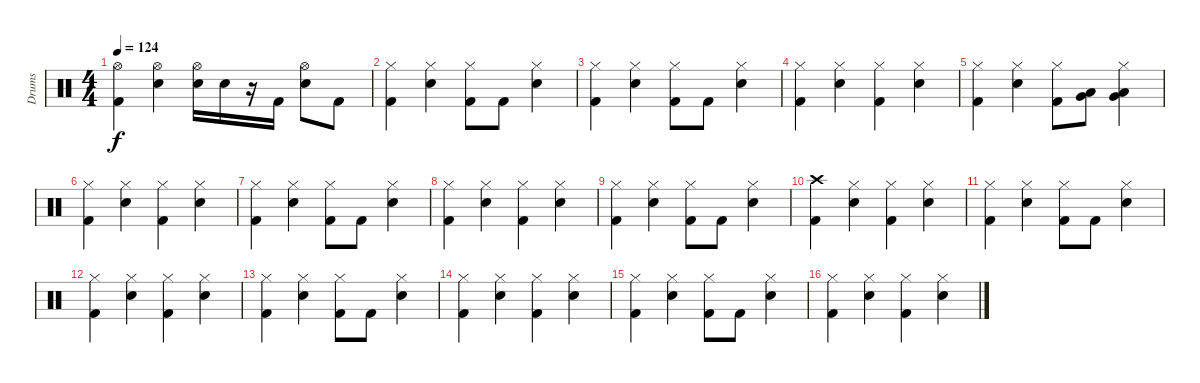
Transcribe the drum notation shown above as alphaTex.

\track ("Drums" "Drums") {instrument percussion}
\staff {score}
\articulation defaults
\ts (4 4)
\tempo 124
\clef neutral
\ks c
("Hi-Hat (open)" "Kick (hit) 2").4{dy f} ("Hi-Hat (open)" "Snare (hit) 2").4 ("Hi-Hat (open)" "Snare (hit) 2").16 "Snare (hit) 2".16 r.16 "Kick (hit) 2".16 ("Hi-Hat (open)" "Snare (hit) 2").8 "Kick (hit) 2".8 |
("Hi-Hat (closed)" "Kick (hit) 2").4 ("Hi-Hat (closed)" "Snare (hit) 2").4 ("Hi-Hat (closed)" "Kick (hit) 2").8 "Kick (hit) 2".8 ("Hi-Hat (closed)" "Snare (hit) 2").4 |
("Hi-Hat (closed)" "Kick (hit) 2").4 ("Hi-Hat (closed)" "Snare (hit) 2").4 ("Hi-Hat (closed)" "Kick (hit) 2").8 "Kick (hit) 2".8 ("Hi-Hat (closed)" "Snare (hit) 2").4 |
("Hi-Hat (closed)" "Kick (hit) 2").4 ("Hi-Hat (closed)" "Snare (hit) 2").4 ("Hi-Hat (closed)" "Kick (hit) 2").4 ("Hi-Hat (closed)" "Snare (hit) 2").4 |
("Hi-Hat (closed)" "Kick (hit) 2").4 ("Hi-Hat (closed)" "Snare (hit) 2").4 ("Hi-Hat (closed)" "Kick (hit) 2").8 ("Very Low Tom (hit)" "Low Tom (hit)").8 ("Hi-Hat (closed)" "Very Low Tom (hit)" "Low Tom (hit)").4 |
("Hi-Hat (closed)" "Kick (hit) 2").4 ("Hi-Hat (closed)" "Snare (hit) 2").4 ("Hi-Hat (closed)" "Kick (hit) 2").4 ("Hi-Hat (closed)" "Snare (hit) 2").4 |
("Hi-Hat (closed)" "Kick (hit) 2").4 ("Hi-Hat (closed)" "Snare (hit) 2").4 ("Hi-Hat (closed)" "Kick (hit) 2").8 "Kick (hit) 2".8 ("Hi-Hat (closed)" "Snare (hit) 2").4 |
("Hi-Hat (closed)" "Kick (hit) 2").4 ("Hi-Hat (closed)" "Snare (hit) 2").4 ("Hi-Hat (closed)" "Kick (hit) 2").4 ("Hi-Hat (closed)" "Snare (hit) 2").4 |
("Hi-Hat (closed)" "Kick (hit) 2").4 ("Hi-Hat (closed)" "Snare (hit) 2").4 ("Hi-Hat (closed)" "Kick (hit) 2").8 "Kick (hit) 2".8 ("Hi-Hat (closed)" "Snare (hit) 2").4 |
("Crash high (hit)" "Kick (hit) 2").4 ("Hi-Hat (closed)" "Snare (hit) 2").4 ("Hi-Hat (closed)" "Kick (hit) 2").4 ("Hi-Hat (closed)" "Snare (hit) 2").4 |
("Hi-Hat (closed)" "Kick (hit) 2").4 ("Hi-Hat (closed)" "Snare (hit) 2").4 ("Hi-Hat (closed)" "Kick (hit) 2").8 "Kick (hit) 2".8 ("Hi-Hat (closed)" "Snare (hit) 2").4 |
("Hi-Hat (closed)" "Kick (hit) 2").4 ("Hi-Hat (closed)" "Snare (hit) 2").4 ("Hi-Hat (closed)" "Kick (hit) 2").4 ("Hi-Hat (closed)" "Snare (hit) 2").4 |
("Hi-Hat (closed)" "Kick (hit) 2").4 ("Hi-Hat (closed)" "Snare (hit) 2").4 ("Hi-Hat (closed)" "Kick (hit) 2").8 "Kick (hit) 2".8 ("Hi-Hat (closed)" "Snare (hit) 2").4 |
("Hi-Hat (closed)" "Kick (hit) 2").4 ("Hi-Hat (closed)" "Snare (hit) 2").4 ("Hi-Hat (closed)" "Kick (hit) 2").4 ("Hi-Hat (closed)" "Snare (hit) 2").4 |
("Hi-Hat (closed)" "Kick (hit) 2").4 ("Hi-Hat (closed)" "Snare (hit) 2").4 ("Hi-Hat (closed)" "Kick (hit) 2").8 "Kick (hit) 2".8 ("Hi-Hat (closed)" "Snare (hit) 2").4 |
("Hi-Hat (closed)" "Kick (hit) 2").4 ("Hi-Hat (closed)" "Snare (hit) 2").4 ("Hi-Hat (closed)" "Kick (hit) 2").4 ("Hi-Hat (closed)" "Snare (hit) 2").4
